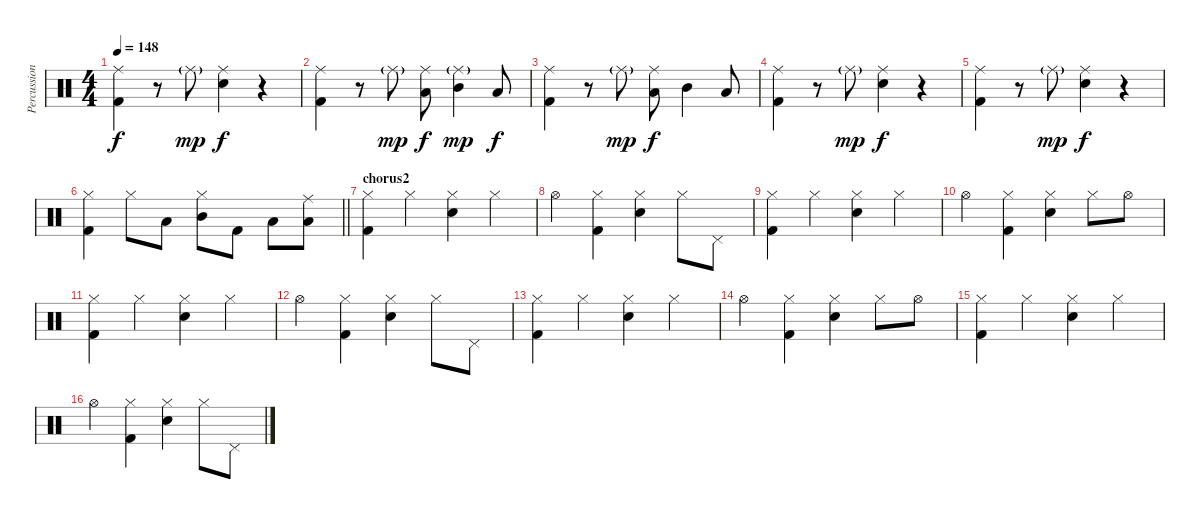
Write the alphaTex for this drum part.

\track ("Percussions" "Percussion") {instrument percussion}
\staff {score}
\articulation defaults
\ts (4 4)
\tempo 148
\clef neutral
\ks c
("Ride (middle)" "Kick (hit) 2").4{dy f} r.8 "Ride (middle)"{g}.8{dy mp} ("Ride (middle)" "Snare (hit) 2").4{dy f} r.4 |
("Ride (middle)" "Kick (hit) 2").4 r.8 "Ride (middle)"{g}.8{dy mp} ("Ride (middle)" "Low Tom (hit)").8{dy f} ("Ride (middle)"{g} "Mid Tom (hit)").4{dy mp} "Low Tom (hit)".8{dy f} |
("Ride (middle)" "Kick (hit) 2").4 r.8 "Ride (middle)"{g}.8{dy mp} ("Ride (middle)" "Low Tom (hit)").8{dy f} "Mid Tom (hit)".4 "Low Tom (hit)".8 |
("Ride (middle)" "Kick (hit) 2").4 r.8 "Ride (middle)"{g}.8{dy mp} ("Ride (middle)" "Snare (hit) 2").4{dy f} r.4 |
("Ride (middle)" "Kick (hit) 2").4 r.8 "Ride (middle)"{g}.8{dy mp} ("Ride (middle)" "Snare (hit) 2").4{dy f} r.4 |
\barLineRight lightlight
("Kick (hit) 2" "Hi-Hat (closed)").4 "Hi-Hat (closed)".8 "Low Tom (hit)".8 ("Hi-Hat (closed)" "Mid Tom (hit)").8 "Kick (hit) 2".8 "Low Tom (hit)".8 ("Ride (middle)" "Low Floor Tom (hit)").8 |
\section ("" "chorus2")
("Hi-Hat (closed)" "Kick (hit) 2").4 "Hi-Hat (closed)".4 ("Hi-Hat (closed)" "Snare (hit) 2").4 "Hi-Hat (closed)".4 |
"Hi-Hat (open)".4 ("Hi-Hat (closed)" "Kick (hit) 2").4 ("Hi-Hat (closed)" "Snare (hit) 2").4 "Hi-Hat (closed)".8 "Pedal Hi-Hat (hit)".8 |
("Hi-Hat (closed)" "Kick (hit) 2").4 "Hi-Hat (closed)".4 ("Hi-Hat (closed)" "Snare (hit) 2").4 "Hi-Hat (closed)".4 |
"Hi-Hat (open)".4 ("Hi-Hat (closed)" "Kick (hit) 2").4 ("Hi-Hat (closed)" "Snare (hit) 2").4 "Hi-Hat (closed)".8 "Hi-Hat (open)".8 |
("Hi-Hat (closed)" "Kick (hit) 2").4 "Hi-Hat (closed)".4 ("Hi-Hat (closed)" "Snare (hit) 2").4 "Hi-Hat (closed)".4 |
"Hi-Hat (open)".4 ("Hi-Hat (closed)" "Kick (hit) 2").4 ("Hi-Hat (closed)" "Snare (hit) 2").4 "Hi-Hat (closed)".8 "Pedal Hi-Hat (hit)".8 |
("Hi-Hat (closed)" "Kick (hit) 2").4 "Hi-Hat (closed)".4 ("Hi-Hat (closed)" "Snare (hit) 2").4 "Hi-Hat (closed)".4 |
"Hi-Hat (open)".4 ("Hi-Hat (closed)" "Kick (hit) 2").4 ("Hi-Hat (closed)" "Snare (hit) 2").4 "Hi-Hat (closed)".8 "Hi-Hat (open)".8 |
("Hi-Hat (closed)" "Kick (hit) 2").4 "Hi-Hat (closed)".4 ("Hi-Hat (closed)" "Snare (hit) 2").4 "Hi-Hat (closed)".4 |
"Hi-Hat (open)".4 ("Hi-Hat (closed)" "Kick (hit) 2").4 ("Hi-Hat (closed)" "Snare (hit) 2").4 "Hi-Hat (closed)".8 "Pedal Hi-Hat (hit)".8
